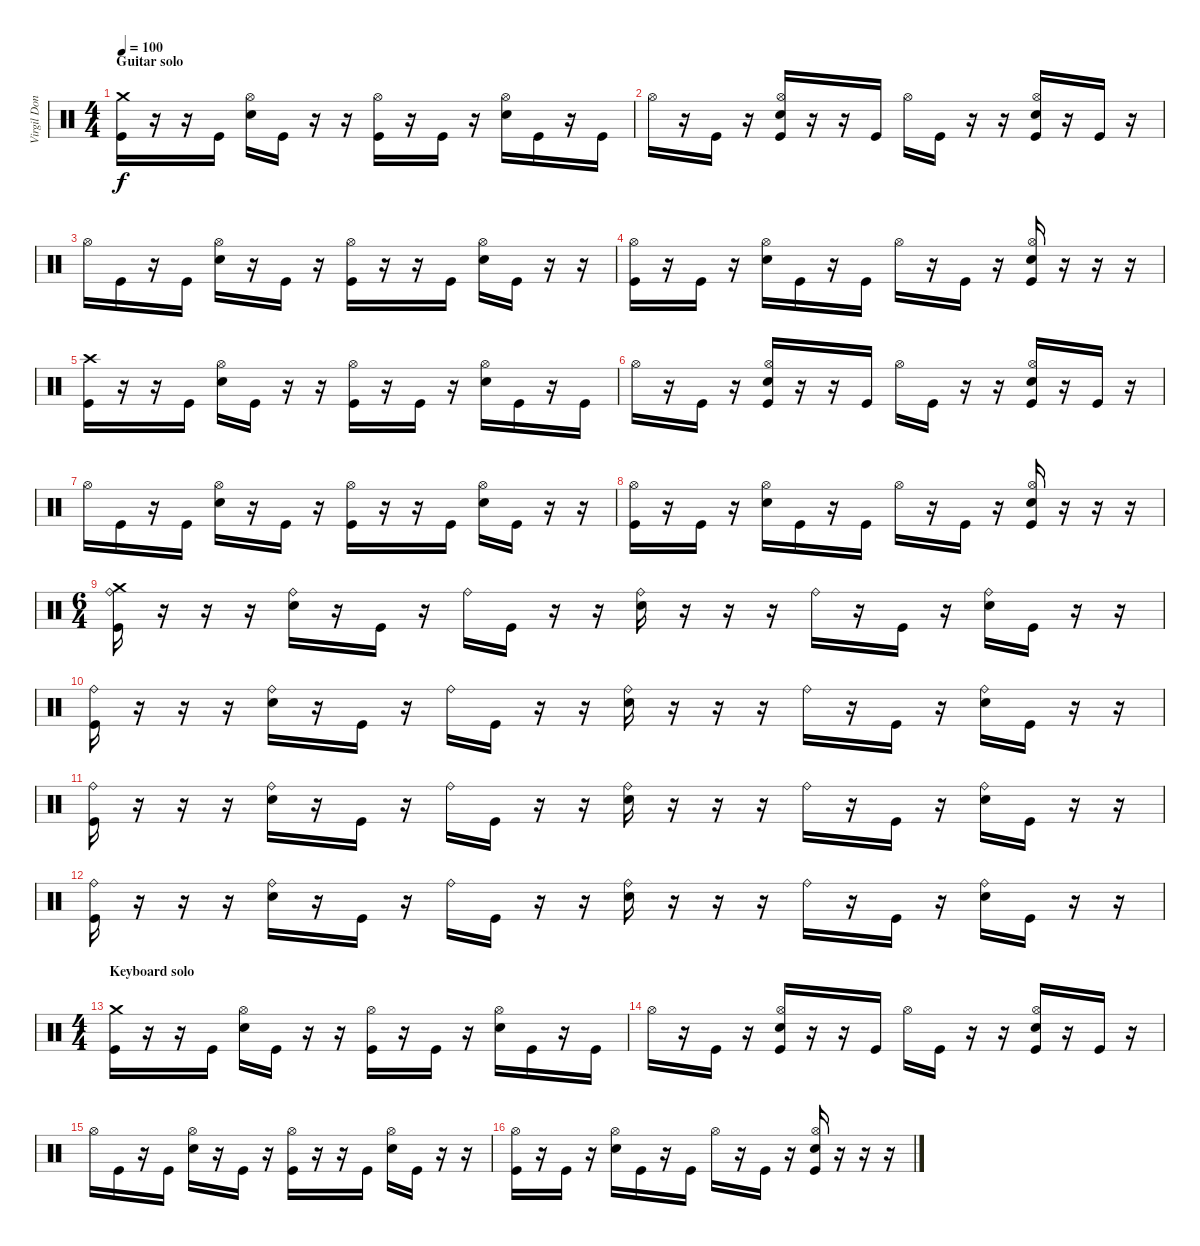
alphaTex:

\track ("Virgil Donati" "Virgil Don") {instrument percussion}
\staff {score}
\articulation defaults
\ts (4 4)
\section ("" "Guitar solo")
\tempo 100
\clef neutral
\ks c
("Crash medium (hit)" "Kick (hit)").16{dy f} r.16 r.16 "Kick (hit)".16 ("Hi-Hat (open)" "Electric Snare (hit)").16 "Kick (hit)".16 r.16 r.16 ("Hi-Hat (open)" "Kick (hit)").16 r.16 "Kick (hit)".16 r.16 ("Hi-Hat (open)" "Electric Snare (hit)").16 "Kick (hit)".16 r.16 "Kick (hit)".16 |
"Hi-Hat (open)".16 r.16 "Kick (hit)".16 r.16 ("Hi-Hat (open)" "Electric Snare (hit)" "Kick (hit)").16 r.16 r.16 "Kick (hit)".16 "Hi-Hat (open)".16 "Kick (hit)".16 r.16 r.16 ("Hi-Hat (open)" "Electric Snare (hit)" "Kick (hit)").16 r.16 "Kick (hit)".16 r.16 |
"Hi-Hat (open)".16 "Kick (hit)".16 r.16 "Kick (hit)".16 ("Hi-Hat (open)" "Electric Snare (hit)").16 r.16 "Kick (hit)".16 r.16 ("Hi-Hat (open)" "Kick (hit)").16 r.16 r.16 "Kick (hit)".16 ("Hi-Hat (open)" "Electric Snare (hit)").16 "Kick (hit)".16 r.16 r.16 |
("Hi-Hat (open)" "Kick (hit)").16 r.16 "Kick (hit)".16 r.16 ("Hi-Hat (open)" "Electric Snare (hit)").16 "Kick (hit)".16 r.16 "Kick (hit)".16 "Hi-Hat (open)".16 r.16 "Kick (hit)".16 r.16 ("Hi-Hat (open)" "Electric Snare (hit)" "Kick (hit)").16 r.16 r.16 r.16 |
("Crash high (hit)" "Kick (hit)").16 r.16 r.16 "Kick (hit)".16 ("Hi-Hat (open)" "Electric Snare (hit)").16 "Kick (hit)".16 r.16 r.16 ("Hi-Hat (open)" "Kick (hit)").16 r.16 "Kick (hit)".16 r.16 ("Hi-Hat (open)" "Electric Snare (hit)").16 "Kick (hit)".16 r.16 "Kick (hit)".16 |
"Hi-Hat (open)".16 r.16 "Kick (hit)".16 r.16 ("Hi-Hat (open)" "Electric Snare (hit)" "Kick (hit)").16 r.16 r.16 "Kick (hit)".16 "Hi-Hat (open)".16 "Kick (hit)".16 r.16 r.16 ("Hi-Hat (open)" "Electric Snare (hit)" "Kick (hit)").16 r.16 "Kick (hit)".16 r.16 |
"Hi-Hat (open)".16 "Kick (hit)".16 r.16 "Kick (hit)".16 ("Hi-Hat (open)" "Electric Snare (hit)").16 r.16 "Kick (hit)".16 r.16 ("Hi-Hat (open)" "Kick (hit)").16 r.16 r.16 "Kick (hit)".16 ("Hi-Hat (open)" "Electric Snare (hit)").16 "Kick (hit)".16 r.16 r.16 |
("Hi-Hat (open)" "Kick (hit)").16 r.16 "Kick (hit)".16 r.16 ("Hi-Hat (open)" "Electric Snare (hit)").16 "Kick (hit)".16 r.16 "Kick (hit)".16 "Hi-Hat (open)".16 r.16 "Kick (hit)".16 r.16 ("Hi-Hat (open)" "Electric Snare (hit)" "Kick (hit)").16 r.16 r.16 r.16 |
\ts (6 4)
("Ride (bell)" "Crash medium (hit)" "Kick (hit)").16 r.16 r.16 r.16 ("Ride (bell)" "Electric Snare (hit)").16 r.16 "Kick (hit)".16 r.16 "Ride (bell)".16 "Kick (hit)".16 r.16 r.16 ("Ride (bell)" "Electric Snare (hit)").16 r.16 r.16 r.16 "Ride (bell)".16 r.16 "Kick (hit)".16 r.16 ("Ride (bell)" "Electric Snare (hit)").16 "Kick (hit)".16 r.16 r.16 |
("Ride (bell)" "Kick (hit)").16 r.16 r.16 r.16 ("Ride (bell)" "Electric Snare (hit)").16 r.16 "Kick (hit)".16 r.16 "Ride (bell)".16 "Kick (hit)".16 r.16 r.16 ("Ride (bell)" "Electric Snare (hit)").16 r.16 r.16 r.16 "Ride (bell)".16 r.16 "Kick (hit)".16 r.16 ("Ride (bell)" "Electric Snare (hit)").16 "Kick (hit)".16 r.16 r.16 |
("Ride (bell)" "Kick (hit)").16 r.16 r.16 r.16 ("Ride (bell)" "Electric Snare (hit)").16 r.16 "Kick (hit)".16 r.16 "Ride (bell)".16 "Kick (hit)".16 r.16 r.16 ("Ride (bell)" "Electric Snare (hit)").16 r.16 r.16 r.16 "Ride (bell)".16 r.16 "Kick (hit)".16 r.16 ("Ride (bell)" "Electric Snare (hit)").16 "Kick (hit)".16 r.16 r.16 |
("Ride (bell)" "Kick (hit)").16 r.16 r.16 r.16 ("Ride (bell)" "Electric Snare (hit)").16 r.16 "Kick (hit)".16 r.16 "Ride (bell)".16 "Kick (hit)".16 r.16 r.16 ("Ride (bell)" "Electric Snare (hit)").16 r.16 r.16 r.16 "Ride (bell)".16 r.16 "Kick (hit)".16 r.16 ("Ride (bell)" "Electric Snare (hit)").16 "Kick (hit)".16 r.16 r.16 |
\ts (4 4)
\section ("" "Keyboard solo")
("Crash medium (hit)" "Kick (hit)").16 r.16 r.16 "Kick (hit)".16 ("Hi-Hat (open)" "Electric Snare (hit)").16 "Kick (hit)".16 r.16 r.16 ("Hi-Hat (open)" "Kick (hit)").16 r.16 "Kick (hit)".16 r.16 ("Hi-Hat (open)" "Electric Snare (hit)").16 "Kick (hit)".16 r.16 "Kick (hit)".16 |
"Hi-Hat (open)".16 r.16 "Kick (hit)".16 r.16 ("Hi-Hat (open)" "Electric Snare (hit)" "Kick (hit)").16 r.16 r.16 "Kick (hit)".16 "Hi-Hat (open)".16 "Kick (hit)".16 r.16 r.16 ("Hi-Hat (open)" "Electric Snare (hit)" "Kick (hit)").16 r.16 "Kick (hit)".16 r.16 |
"Hi-Hat (open)".16 "Kick (hit)".16 r.16 "Kick (hit)".16 ("Hi-Hat (open)" "Electric Snare (hit)").16 r.16 "Kick (hit)".16 r.16 ("Hi-Hat (open)" "Kick (hit)").16 r.16 r.16 "Kick (hit)".16 ("Hi-Hat (open)" "Electric Snare (hit)").16 "Kick (hit)".16 r.16 r.16 |
("Hi-Hat (open)" "Kick (hit)").16 r.16 "Kick (hit)".16 r.16 ("Hi-Hat (open)" "Electric Snare (hit)").16 "Kick (hit)".16 r.16 "Kick (hit)".16 "Hi-Hat (open)".16 r.16 "Kick (hit)".16 r.16 ("Hi-Hat (open)" "Electric Snare (hit)" "Kick (hit)").16 r.16 r.16 r.16
